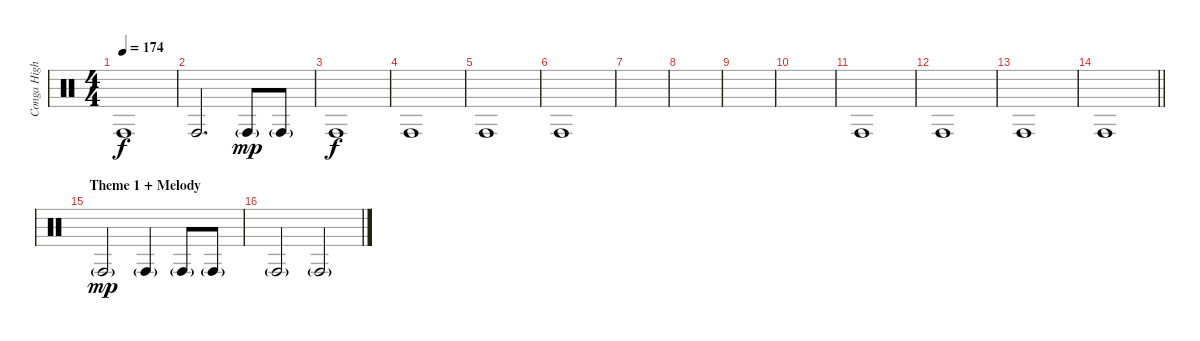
\track ("Conga High" "Conga High") {instrument percussion}
\staff {score}
\articulation defaults
\ts (4 4)
\tempo 174
\clef neutral
\ks c "Conga high (hit)".1{dy f}
|
"Conga high (hit)".2{d} "Conga high (hit)"{g}.8{dy mp} "Conga high (hit)"{g}.8 |
"Conga high (hit)".1{dy f} |
"Conga high (hit)".1 |
"Conga high (hit)".1 |
"Conga high (hit)".1 |
|
|
|
|
"Conga high (hit)".1 |
"Conga high (hit)".1 |
"Conga high (hit)".1 |
\barLineRight lightlight "Conga high (hit)".1
|
\section ("" "Theme 1 + Melody")
"Conga high (hit)"{g}.2{dy mp} "Conga high (hit)"{g}.4 "Conga high (hit)"{g}.8 "Conga high (hit)"{g}.8 |
"Conga high (hit)"{g}.2 "Conga high (hit)"{g}.2
